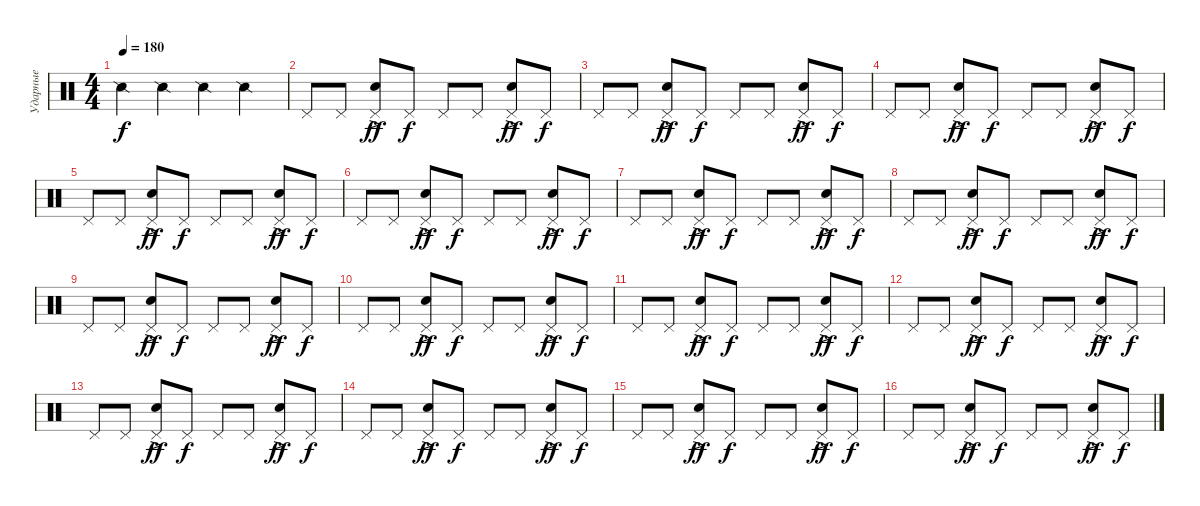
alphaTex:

\track ("Ударные" "Ударные") {instrument percussion}
\staff {score}
\articulation defaults
\ts (4 4)
\tempo 180
\clef neutral
\ks c "Snare (side stick) 2".4{dy f} "Snare (side stick) 2".4 "Snare (side stick) 2".4 "Snare (side stick) 2".4
|
"Pedal Hi-Hat (hit)".8 "Pedal Hi-Hat (hit)".8 ("Pedal Hi-Hat (hit)"{ac} "Electric Snare (hit)").8{dy ff} "Pedal Hi-Hat (hit)".8{dy f} "Pedal Hi-Hat (hit)".8 "Pedal Hi-Hat (hit)".8 ("Pedal Hi-Hat (hit)"{ac} "Electric Snare (hit)").8{dy ff} "Pedal Hi-Hat (hit)".8{dy f} |
"Pedal Hi-Hat (hit)".8 "Pedal Hi-Hat (hit)".8 ("Pedal Hi-Hat (hit)"{ac} "Electric Snare (hit)").8{dy ff} "Pedal Hi-Hat (hit)".8{dy f} "Pedal Hi-Hat (hit)".8 "Pedal Hi-Hat (hit)".8 ("Pedal Hi-Hat (hit)"{ac} "Electric Snare (hit)").8{dy ff} "Pedal Hi-Hat (hit)".8{dy f} |
"Pedal Hi-Hat (hit)".8 "Pedal Hi-Hat (hit)".8 ("Pedal Hi-Hat (hit)"{ac} "Electric Snare (hit)").8{dy ff} "Pedal Hi-Hat (hit)".8{dy f} "Pedal Hi-Hat (hit)".8 "Pedal Hi-Hat (hit)".8 ("Pedal Hi-Hat (hit)"{ac} "Electric Snare (hit)").8{dy ff} "Pedal Hi-Hat (hit)".8{dy f} |
"Pedal Hi-Hat (hit)".8 "Pedal Hi-Hat (hit)".8 ("Pedal Hi-Hat (hit)"{ac} "Electric Snare (hit)").8{dy ff} "Pedal Hi-Hat (hit)".8{dy f} "Pedal Hi-Hat (hit)".8 "Pedal Hi-Hat (hit)".8 ("Pedal Hi-Hat (hit)"{ac} "Electric Snare (hit)").8{dy ff} "Pedal Hi-Hat (hit)".8{dy f} |
"Pedal Hi-Hat (hit)".8 "Pedal Hi-Hat (hit)".8 ("Pedal Hi-Hat (hit)"{ac} "Electric Snare (hit)").8{dy ff} "Pedal Hi-Hat (hit)".8{dy f} "Pedal Hi-Hat (hit)".8 "Pedal Hi-Hat (hit)".8 ("Pedal Hi-Hat (hit)"{ac} "Electric Snare (hit)").8{dy ff} "Pedal Hi-Hat (hit)".8{dy f} |
"Pedal Hi-Hat (hit)".8 "Pedal Hi-Hat (hit)".8 ("Pedal Hi-Hat (hit)"{ac} "Electric Snare (hit)").8{dy ff} "Pedal Hi-Hat (hit)".8{dy f} "Pedal Hi-Hat (hit)".8 "Pedal Hi-Hat (hit)".8 ("Pedal Hi-Hat (hit)"{ac} "Electric Snare (hit)").8{dy ff} "Pedal Hi-Hat (hit)".8{dy f} |
"Pedal Hi-Hat (hit)".8 "Pedal Hi-Hat (hit)".8 ("Pedal Hi-Hat (hit)"{ac} "Electric Snare (hit)").8{dy ff} "Pedal Hi-Hat (hit)".8{dy f} "Pedal Hi-Hat (hit)".8 "Pedal Hi-Hat (hit)".8 ("Pedal Hi-Hat (hit)"{ac} "Electric Snare (hit)").8{dy ff} "Pedal Hi-Hat (hit)".8{dy f} |
"Pedal Hi-Hat (hit)".8 "Pedal Hi-Hat (hit)".8 ("Pedal Hi-Hat (hit)"{ac} "Electric Snare (hit)").8{dy ff} "Pedal Hi-Hat (hit)".8{dy f} "Pedal Hi-Hat (hit)".8 "Pedal Hi-Hat (hit)".8 ("Pedal Hi-Hat (hit)"{ac} "Electric Snare (hit)").8{dy ff} "Pedal Hi-Hat (hit)".8{dy f} |
"Pedal Hi-Hat (hit)".8 "Pedal Hi-Hat (hit)".8 ("Pedal Hi-Hat (hit)"{ac} "Electric Snare (hit)").8{dy ff} "Pedal Hi-Hat (hit)".8{dy f} "Pedal Hi-Hat (hit)".8 "Pedal Hi-Hat (hit)".8 ("Pedal Hi-Hat (hit)"{ac} "Electric Snare (hit)").8{dy ff} "Pedal Hi-Hat (hit)".8{dy f} |
"Pedal Hi-Hat (hit)".8 "Pedal Hi-Hat (hit)".8 ("Pedal Hi-Hat (hit)"{ac} "Electric Snare (hit)").8{dy ff} "Pedal Hi-Hat (hit)".8{dy f} "Pedal Hi-Hat (hit)".8 "Pedal Hi-Hat (hit)".8 ("Pedal Hi-Hat (hit)"{ac} "Electric Snare (hit)").8{dy ff} "Pedal Hi-Hat (hit)".8{dy f} |
"Pedal Hi-Hat (hit)".8 "Pedal Hi-Hat (hit)".8 ("Pedal Hi-Hat (hit)"{ac} "Electric Snare (hit)").8{dy ff} "Pedal Hi-Hat (hit)".8{dy f} "Pedal Hi-Hat (hit)".8 "Pedal Hi-Hat (hit)".8 ("Pedal Hi-Hat (hit)"{ac} "Electric Snare (hit)").8{dy ff} "Pedal Hi-Hat (hit)".8{dy f} |
"Pedal Hi-Hat (hit)".8 "Pedal Hi-Hat (hit)".8 ("Pedal Hi-Hat (hit)"{ac} "Electric Snare (hit)").8{dy ff} "Pedal Hi-Hat (hit)".8{dy f} "Pedal Hi-Hat (hit)".8 "Pedal Hi-Hat (hit)".8 ("Pedal Hi-Hat (hit)"{ac} "Electric Snare (hit)").8{dy ff} "Pedal Hi-Hat (hit)".8{dy f} |
"Pedal Hi-Hat (hit)".8 "Pedal Hi-Hat (hit)".8 ("Pedal Hi-Hat (hit)"{ac} "Electric Snare (hit)").8{dy ff} "Pedal Hi-Hat (hit)".8{dy f} "Pedal Hi-Hat (hit)".8 "Pedal Hi-Hat (hit)".8 ("Pedal Hi-Hat (hit)"{ac} "Electric Snare (hit)").8{dy ff} "Pedal Hi-Hat (hit)".8{dy f} |
"Pedal Hi-Hat (hit)".8 "Pedal Hi-Hat (hit)".8 ("Pedal Hi-Hat (hit)"{ac} "Electric Snare (hit)").8{dy ff} "Pedal Hi-Hat (hit)".8{dy f} "Pedal Hi-Hat (hit)".8 "Pedal Hi-Hat (hit)".8 ("Pedal Hi-Hat (hit)"{ac} "Electric Snare (hit)").8{dy ff} "Pedal Hi-Hat (hit)".8{dy f} |
"Pedal Hi-Hat (hit)".8 "Pedal Hi-Hat (hit)".8 ("Pedal Hi-Hat (hit)"{ac} "Electric Snare (hit)").8{dy ff} "Pedal Hi-Hat (hit)".8{dy f} "Pedal Hi-Hat (hit)".8 "Pedal Hi-Hat (hit)".8 ("Pedal Hi-Hat (hit)"{ac} "Electric Snare (hit)").8{dy ff} "Pedal Hi-Hat (hit)".8{dy f}
